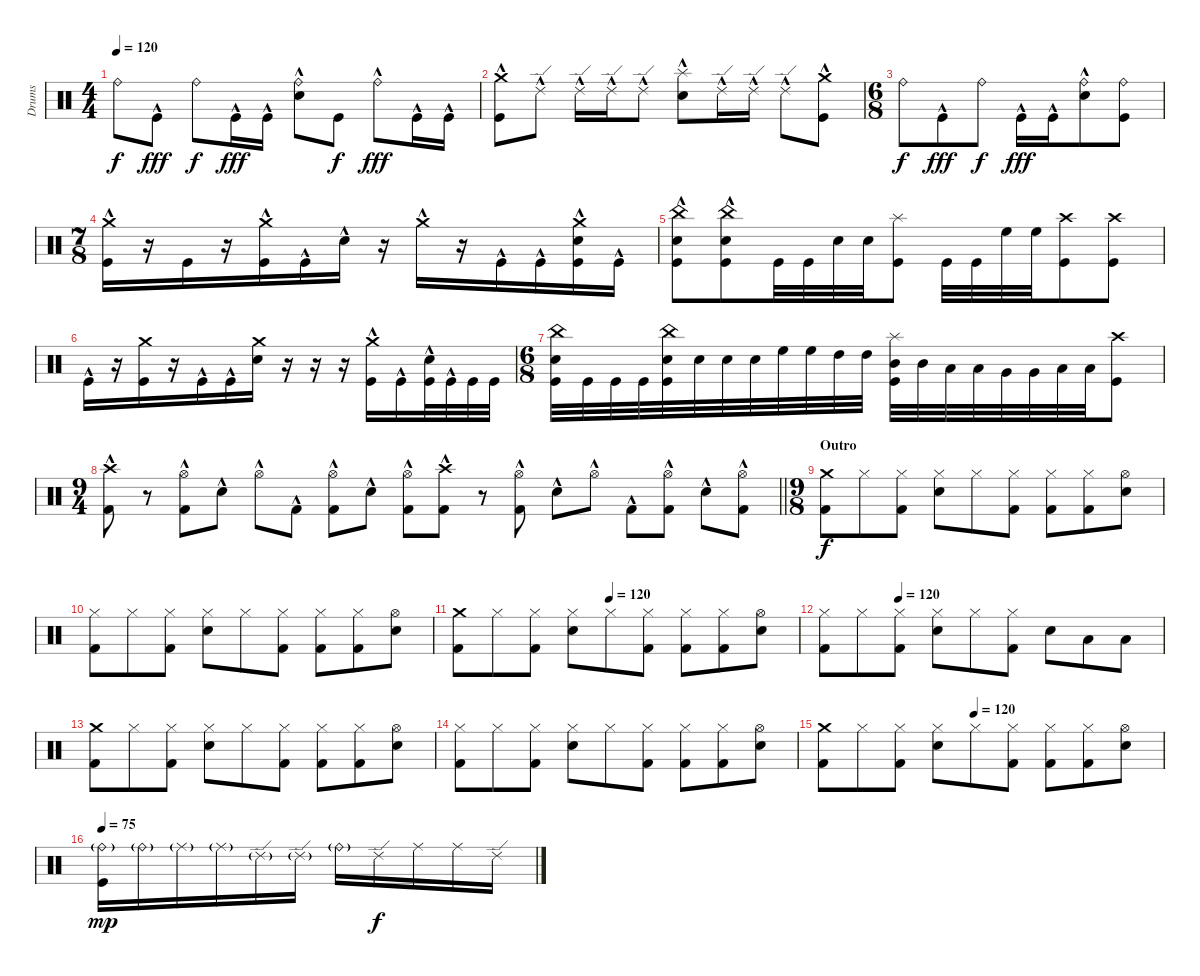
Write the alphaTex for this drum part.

\track ("Drums" "Drums") {instrument percussion}
\staff {score}
\articulation defaults
\ts (4 4)
\tempo 120
\clef neutral
\ks c "Ride (bell)".8{dy f} "Kick (hit)"{hac}.8{dy fff} "Ride (bell)".8{dy f} "Kick (hit)"{hac}.16{dy fff} "Kick (hit)"{hac}.16
("Ride (bell)"{hac} "Electric Snare (hit)"{hac}).8 "Kick (hit)".8{dy f} "Ride (bell)"{hac}.8{dy fff} "Kick (hit)"{hac}.16 "Kick (hit)"{hac}.16 |
("Crash medium (hit)"{hac} "Kick (hit)"{hac}).8 "Ride (edge) 2"{hac}.8 "Ride (edge) 2"{hac}.16 "Ride (edge) 2"{hac}.16 "Ride (edge) 2"{hac}.8 ("Splash (hit)"{hac} "Electric Snare (hit)"{hac}).8 "Ride (edge) 2"{hac}.16 "Ride (edge) 2"{hac}.16 "Ride (edge) 2"{hac}.8 ("Crash medium (hit)"{hac} "Kick (hit)"{hac}).8 |
\ts (6 8)
"Ride (bell)".8{dy f} "Kick (hit)"{hac}.8{dy fff} "Ride (bell)".8{dy f} "Kick (hit)"{hac}.16{dy fff} "Kick (hit)"{hac}.16 ("Ride (bell)"{hac} "Electric Snare (hit)"{hac}).8 ("Ride (bell)" "Kick (hit)").8 |
\ts (7 8)
("Crash medium (hit)"{hac} "Kick (hit)"{hac}).16 r.16 "Kick (hit)".16 r.16 ("Crash medium (hit)"{hac} "Kick (hit)"{hac}).16 "Kick (hit)"{hac}.16 "Electric Snare (hit)"{hac}.16 r.16 "Crash medium (hit)"{hac}.16 r.16 "Kick (hit)"{hac}.16 "Kick (hit)"{hac}.16 ("Crash medium (hit)"{hac} "Electric Snare (hit)"{hac} "Kick (hit)").16 "Kick (hit)"{hac}.16 |
("China (hit)"{hac} "Electric Snare (hit)"{hac} "Kick (hit)"{hac}).8 ("China (hit)"{hac} "Electric Snare (hit)"{hac} "Kick (hit)"{hac}).8 "Kick (hit)".32 "Kick (hit)".32 "Electric Snare (hit)".32 "Electric Snare (hit)".32 ("Splash (hit)" "Kick (hit)").8 "Kick (hit)".32 "Kick (hit)".32 "High Floor Tom (hit)".32 "High Floor Tom (hit)".32 ("Crash high (hit)" "Kick (hit)").8 ("Crash high (hit)" "Kick (hit)").8 |
"Kick (hit)"{hac}.16 r.16 ("Crash medium (hit)" "Kick (hit)").16 r.16 "Kick (hit)"{hac}.16 "Kick (hit)"{hac}.16 ("Crash medium (hit)" "Electric Snare (hit)").16 r.16 r.16 r.16 ("Crash medium (hit)" "Kick (hit)"{hac}).16 "Kick (hit)"{hac}.16 ("Electric Snare (hit)"{hac} "Kick (hit)").32 "Kick (hit)"{hac}.32 "Kick (hit)".32 "Kick (hit)".32 |
\ts (6 8)
("China (hit)" "Electric Snare (hit)" "Kick (hit)").32 "Kick (hit)".32 "Kick (hit)".32 "Kick (hit)".32 ("China (hit)" "Electric Snare (hit)" "Kick (hit)").32 "Electric Snare (hit)".32 "Electric Snare (hit)".32 "Electric Snare (hit)".32 "High Floor Tom (hit)".32 "High Floor Tom (hit)".32 "High Tom (hit)".32 "High Tom (hit)".32 ("Splash (hit)" "Mid Tom (hit)" "Kick (hit)").32 "Mid Tom (hit)".32 "Low Tom (hit)".32 "Low Tom (hit)".32 "Very Low Tom (hit)".32 "Very Low Tom (hit)".32 "Low Floor Tom (hit)".32 "Low Floor Tom (hit)".32 ("Crash high (hit)" "Kick (hit)").8 |
\ts (9 4)
\barLineRight lightlight
("Kick (hit) 2"{hac} "Crash high (hit)"{hac}).8 r.8 ("Kick (hit) 2"{hac} "Hi-Hat (open)"{hac}).8 "Electric Snare (hit)"{hac}.8 "Hi-Hat (open)"{hac}.8 "Kick (hit) 2"{hac}.8 ("Kick (hit) 2"{hac} "Hi-Hat (open)"{hac}).8 "Electric Snare (hit)"{hac}.8 ("Kick (hit) 2"{hac} "Hi-Hat (open)"{hac}).8 ("Kick (hit) 2"{hac} "Crash high (hit)"{hac}).8 r.8 ("Kick (hit) 2"{hac} "Hi-Hat (open)"{hac}).8 "Electric Snare (hit)"{hac}.8 "Hi-Hat (open)"{hac}.8 "Kick (hit) 2"{hac}.8 ("Kick (hit) 2"{hac} "Hi-Hat (open)"{hac}).8 "Electric Snare (hit)"{hac}.8 ("Kick (hit) 2"{hac} "Hi-Hat (open)"{hac}).8 |
\ts (9 8)
\section ("" "Outro")
("Kick (hit) 2" "Crash medium (hit)").8{dy f} "Hi-Hat (closed)".8 ("Kick (hit) 2" "Hi-Hat (closed)").8 ("Electric Snare (hit)" "Hi-Hat (closed)").8 "Hi-Hat (closed)".8 ("Kick (hit) 2" "Hi-Hat (closed)").8 ("Kick (hit) 2" "Hi-Hat (closed)").8 ("Kick (hit) 2" "Hi-Hat (closed)").8 ("Electric Snare (hit)" "Hi-Hat (open)").8 |
("Kick (hit) 2" "Hi-Hat (closed)").8 "Hi-Hat (closed)".8 ("Kick (hit) 2" "Hi-Hat (closed)").8 ("Electric Snare (hit)" "Hi-Hat (closed)").8 "Hi-Hat (closed)".8 ("Kick (hit) 2" "Hi-Hat (closed)").8 ("Kick (hit) 2" "Hi-Hat (closed)").8 ("Kick (hit) 2" "Hi-Hat (closed)").8 ("Electric Snare (hit)" "Hi-Hat (open)").8 |
\tempo (120 0.4444444444444444)
("Kick (hit) 2" "Crash medium (hit)").8 "Hi-Hat (closed)".8 ("Kick (hit) 2" "Hi-Hat (closed)").8 ("Electric Snare (hit)" "Hi-Hat (closed)").8 "Hi-Hat (closed)".8 ("Kick (hit) 2" "Hi-Hat (closed)").8 ("Kick (hit) 2" "Hi-Hat (closed)").8 ("Kick (hit) 2" "Hi-Hat (closed)").8 ("Electric Snare (hit)" "Hi-Hat (open)").8 |
\tempo (120 0.2222222222222222)
("Kick (hit) 2" "Hi-Hat (closed)").8 "Hi-Hat (closed)".8 ("Kick (hit) 2" "Hi-Hat (closed)").8 ("Electric Snare (hit)" "Hi-Hat (closed)").8 "Hi-Hat (closed)".8 ("Kick (hit) 2" "Hi-Hat (closed)").8 "Electric Snare (hit)".8 "Low Tom (hit)".8 "Low Floor Tom (hit)".8 |
("Kick (hit) 2" "Crash medium (hit)").8 "Hi-Hat (closed)".8 ("Kick (hit) 2" "Hi-Hat (closed)").8 ("Electric Snare (hit)" "Hi-Hat (closed)").8 "Hi-Hat (closed)".8 ("Kick (hit) 2" "Hi-Hat (closed)").8 ("Kick (hit) 2" "Hi-Hat (closed)").8 ("Kick (hit) 2" "Hi-Hat (closed)").8 ("Electric Snare (hit)" "Hi-Hat (open)").8 |
("Kick (hit) 2" "Hi-Hat (closed)").8 "Hi-Hat (closed)".8 ("Kick (hit) 2" "Hi-Hat (closed)").8 ("Electric Snare (hit)" "Hi-Hat (closed)").8 "Hi-Hat (closed)".8 ("Kick (hit) 2" "Hi-Hat (closed)").8 ("Kick (hit) 2" "Hi-Hat (closed)").8 ("Kick (hit) 2" "Hi-Hat (closed)").8 ("Electric Snare (hit)" "Hi-Hat (open)").8 |
\tempo (120 0.4444444444444444)
("Kick (hit) 2" "Crash medium (hit)").8 "Hi-Hat (closed)".8 ("Kick (hit) 2" "Hi-Hat (closed)").8 ("Electric Snare (hit)" "Hi-Hat (closed)").8 "Hi-Hat (closed)".8 ("Kick (hit) 2" "Hi-Hat (closed)").8 ("Kick (hit) 2" "Hi-Hat (closed)").8 ("Kick (hit) 2" "Hi-Hat (closed)").8 ("Electric Snare (hit)" "Hi-Hat (open)").8 |
\tempo 75
("Ride (bell)"{g} "Kick (hit)").16{dy mp} "Ride (bell)"{g}.16 "Ride (middle)"{g}.16 "Ride (middle)"{g}.16 "Ride (edge) 2"{g}.16 "Ride (edge) 2"{g}.16 "Ride (bell)"{g}.16 "Ride (edge) 2".16{dy f} "Ride (middle)".16 "Ride (middle)".16 "Ride (edge) 2".16
